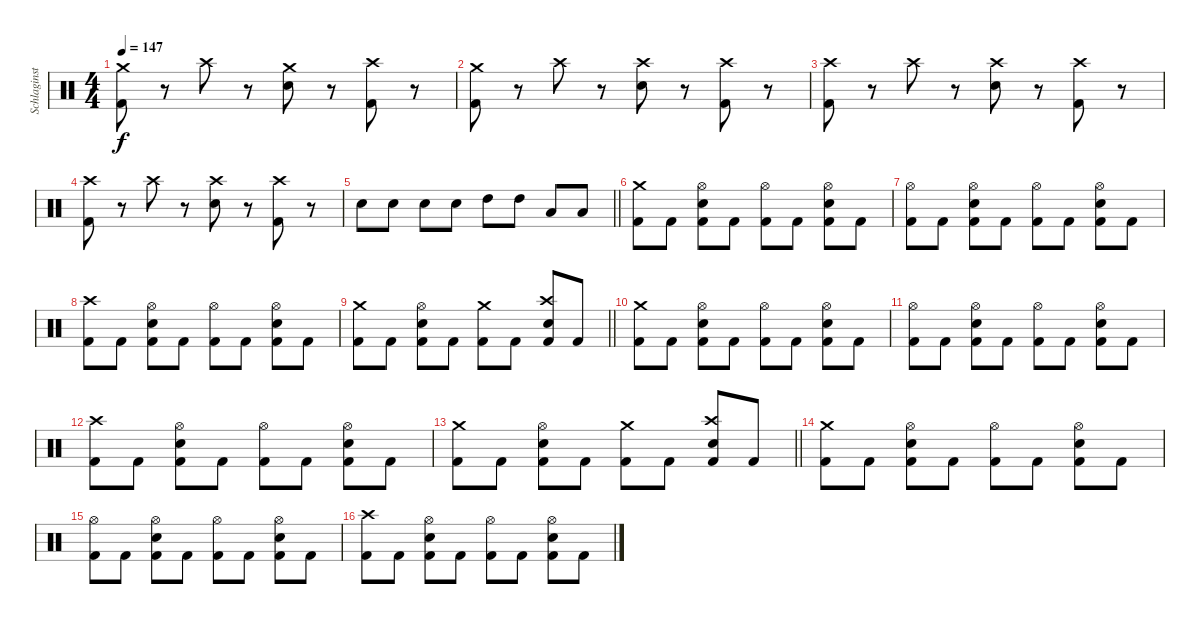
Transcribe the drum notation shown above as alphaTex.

\track ("Schlaginstrumente - Auswahl" "Schlaginst") {instrument percussion}
\staff {score}
\articulation defaults
\ts (4 4)
\tempo 147
\clef neutral
\ks c
("Crash medium (hit)" "Kick (hit) 2").8{dy f} r.8 "Crash high (hit)".8 r.8 ("Crash medium (hit)" "Snare (hit) 2").8 r.8 ("Crash high (hit)" "Kick (hit) 2").8 r.8 |
("Crash medium (hit)" "Kick (hit) 2").8 r.8 "Crash high (hit)".8 r.8 ("Crash high (hit)" "Snare (hit) 2").8 r.8 ("Crash high (hit)" "Kick (hit) 2").8 r.8 |
("Crash high (hit)" "Kick (hit) 2").8 r.8 "Crash high (hit)".8 r.8 ("Crash high (hit)" "Snare (hit) 2").8 r.8 ("Crash high (hit)" "Kick (hit) 2").8 r.8 |
("Crash high (hit)" "Kick (hit) 2").8 r.8 "Crash high (hit)".8 r.8 ("Crash high (hit)" "Snare (hit) 2").8 r.8 ("Crash high (hit)" "Kick (hit) 2").8 r.8 |
\barLineRight lightlight "Snare (hit) 2".8 "Snare (hit) 2".8 "Snare (hit) 2".8 "Snare (hit) 2".8 "High Tom (hit)".8 "High Tom (hit)".8 "Low Tom (hit)".8 "Low Tom (hit)".8
|
("Crash medium (hit)" "Kick (hit) 2").8 "Kick (hit) 2".8 ("Hi-Hat (open)" "Snare (hit) 2" "Kick (hit) 2").8 "Kick (hit) 2".8 ("Hi-Hat (open)" "Kick (hit) 2").8 "Kick (hit) 2".8 ("Hi-Hat (open)" "Snare (hit) 2" "Kick (hit) 2").8 "Kick (hit) 2".8 |
("Hi-Hat (open)" "Kick (hit) 2").8 "Kick (hit) 2".8 ("Hi-Hat (open)" "Snare (hit) 2" "Kick (hit) 2").8 "Kick (hit) 2".8 ("Hi-Hat (open)" "Kick (hit) 2").8 "Kick (hit) 2".8 ("Hi-Hat (open)" "Snare (hit) 2" "Kick (hit) 2").8 "Kick (hit) 2".8 |
("Crash high (hit)" "Kick (hit) 2").8 "Kick (hit) 2".8 ("Hi-Hat (open)" "Snare (hit) 2" "Kick (hit) 2").8 "Kick (hit) 2".8 ("Hi-Hat (open)" "Kick (hit) 2").8 "Kick (hit) 2".8 ("Hi-Hat (open)" "Snare (hit) 2" "Kick (hit) 2").8 "Kick (hit) 2".8 |
\barLineRight lightlight
("Crash medium (hit)" "Kick (hit) 2").8 "Kick (hit) 2".8 ("Hi-Hat (open)" "Snare (hit) 2" "Kick (hit) 2").8 "Kick (hit) 2".8 ("Crash medium (hit)" "Kick (hit) 2").8 "Kick (hit) 2".8 ("Crash high (hit)" "Snare (hit) 2" "Kick (hit) 2").8 "Kick (hit) 2".8 |
("Crash medium (hit)" "Kick (hit) 2").8 "Kick (hit) 2".8 ("Hi-Hat (open)" "Snare (hit) 2" "Kick (hit) 2").8 "Kick (hit) 2".8 ("Hi-Hat (open)" "Kick (hit) 2").8 "Kick (hit) 2".8 ("Hi-Hat (open)" "Snare (hit) 2" "Kick (hit) 2").8 "Kick (hit) 2".8 |
("Hi-Hat (open)" "Kick (hit) 2").8 "Kick (hit) 2".8 ("Hi-Hat (open)" "Snare (hit) 2" "Kick (hit) 2").8 "Kick (hit) 2".8 ("Hi-Hat (open)" "Kick (hit) 2").8 "Kick (hit) 2".8 ("Hi-Hat (open)" "Snare (hit) 2" "Kick (hit) 2").8 "Kick (hit) 2".8 |
("Crash high (hit)" "Kick (hit) 2").8 "Kick (hit) 2".8 ("Hi-Hat (open)" "Snare (hit) 2" "Kick (hit) 2").8 "Kick (hit) 2".8 ("Hi-Hat (open)" "Kick (hit) 2").8 "Kick (hit) 2".8 ("Hi-Hat (open)" "Snare (hit) 2" "Kick (hit) 2").8 "Kick (hit) 2".8 |
\barLineRight lightlight
("Crash medium (hit)" "Kick (hit) 2").8 "Kick (hit) 2".8 ("Hi-Hat (open)" "Snare (hit) 2" "Kick (hit) 2").8 "Kick (hit) 2".8 ("Crash medium (hit)" "Kick (hit) 2").8 "Kick (hit) 2".8 ("Crash high (hit)" "Snare (hit) 2" "Kick (hit) 2").8 "Kick (hit) 2".8 |
("Crash medium (hit)" "Kick (hit) 2").8 "Kick (hit) 2".8 ("Hi-Hat (open)" "Snare (hit) 2" "Kick (hit) 2").8 "Kick (hit) 2".8 ("Hi-Hat (open)" "Kick (hit) 2").8 "Kick (hit) 2".8 ("Hi-Hat (open)" "Snare (hit) 2" "Kick (hit) 2").8 "Kick (hit) 2".8 |
("Hi-Hat (open)" "Kick (hit) 2").8 "Kick (hit) 2".8 ("Hi-Hat (open)" "Snare (hit) 2" "Kick (hit) 2").8 "Kick (hit) 2".8 ("Hi-Hat (open)" "Kick (hit) 2").8 "Kick (hit) 2".8 ("Hi-Hat (open)" "Snare (hit) 2" "Kick (hit) 2").8 "Kick (hit) 2".8 |
("Crash high (hit)" "Kick (hit) 2").8 "Kick (hit) 2".8 ("Hi-Hat (open)" "Snare (hit) 2" "Kick (hit) 2").8 "Kick (hit) 2".8 ("Hi-Hat (open)" "Kick (hit) 2").8 "Kick (hit) 2".8 ("Hi-Hat (open)" "Snare (hit) 2" "Kick (hit) 2").8 "Kick (hit) 2".8
